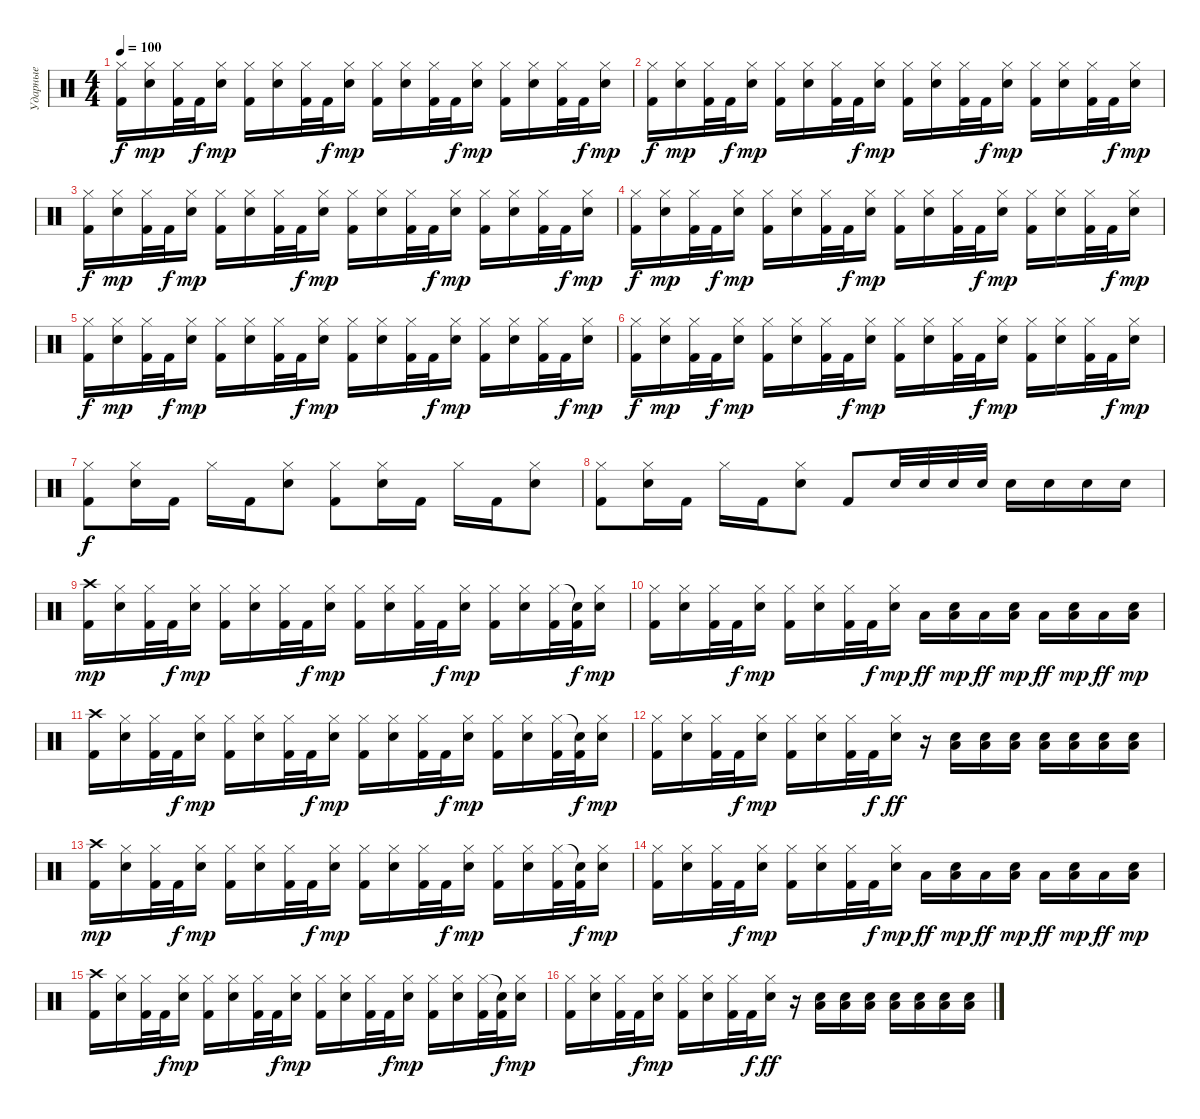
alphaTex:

\track ("Ударные" "Ударные") {instrument percussion}
\staff {score}
\articulation defaults
\ts (4 4)
\tempo 100
\clef neutral
\ks c
("Hi-Hat (closed)" "Kick (hit) 2").16{dy f} ("Hi-Hat (closed)" "Electric Snare (hit)").16{dy mp} ("Hi-Hat (closed)" "Kick (hit) 2").32 "Kick (hit) 2".32{dy f} ("Hi-Hat (closed)" "Electric Snare (hit)").16{dy mp} ("Hi-Hat (closed)" "Kick (hit) 2").16 ("Hi-Hat (closed)" "Electric Snare (hit)").16 ("Hi-Hat (closed)" "Kick (hit) 2").32 "Kick (hit) 2".32{dy f} ("Hi-Hat (closed)" "Electric Snare (hit)").16{dy mp} ("Hi-Hat (closed)" "Kick (hit) 2").16 ("Hi-Hat (closed)" "Electric Snare (hit)").16 ("Hi-Hat (closed)" "Kick (hit) 2").32 "Kick (hit) 2".32{dy f} ("Hi-Hat (closed)" "Electric Snare (hit)").16{dy mp} ("Hi-Hat (closed)" "Kick (hit) 2").16 ("Hi-Hat (closed)" "Electric Snare (hit)").16 ("Hi-Hat (closed)" "Kick (hit) 2").32 "Kick (hit) 2".32{dy f} ("Hi-Hat (closed)" "Electric Snare (hit)").16{dy mp} |
("Hi-Hat (closed)" "Kick (hit) 2").16{dy f} ("Hi-Hat (closed)" "Electric Snare (hit)").16{dy mp} ("Hi-Hat (closed)" "Kick (hit) 2").32 "Kick (hit) 2".32{dy f} ("Hi-Hat (closed)" "Electric Snare (hit)").16{dy mp} ("Hi-Hat (closed)" "Kick (hit) 2").16 ("Hi-Hat (closed)" "Electric Snare (hit)").16 ("Hi-Hat (closed)" "Kick (hit) 2").32 "Kick (hit) 2".32{dy f} ("Hi-Hat (closed)" "Electric Snare (hit)").16{dy mp} ("Hi-Hat (closed)" "Kick (hit) 2").16 ("Hi-Hat (closed)" "Electric Snare (hit)").16 ("Hi-Hat (closed)" "Kick (hit) 2").32 "Kick (hit) 2".32{dy f} ("Hi-Hat (closed)" "Electric Snare (hit)").16{dy mp} ("Hi-Hat (closed)" "Kick (hit) 2").16 ("Hi-Hat (closed)" "Electric Snare (hit)").16 ("Hi-Hat (closed)" "Kick (hit) 2").32 "Kick (hit) 2".32{dy f} ("Hi-Hat (closed)" "Electric Snare (hit)").16{dy mp} |
("Hi-Hat (closed)" "Kick (hit) 2").16{dy f} ("Hi-Hat (closed)" "Electric Snare (hit)").16{dy mp} ("Hi-Hat (closed)" "Kick (hit) 2").32 "Kick (hit) 2".32{dy f} ("Hi-Hat (closed)" "Electric Snare (hit)").16{dy mp} ("Hi-Hat (closed)" "Kick (hit) 2").16 ("Hi-Hat (closed)" "Electric Snare (hit)").16 ("Hi-Hat (closed)" "Kick (hit) 2").32 "Kick (hit) 2".32{dy f} ("Hi-Hat (closed)" "Electric Snare (hit)").16{dy mp} ("Hi-Hat (closed)" "Kick (hit) 2").16 ("Hi-Hat (closed)" "Electric Snare (hit)").16 ("Hi-Hat (closed)" "Kick (hit) 2").32 "Kick (hit) 2".32{dy f} ("Hi-Hat (closed)" "Electric Snare (hit)").16{dy mp} ("Hi-Hat (closed)" "Kick (hit) 2").16 ("Hi-Hat (closed)" "Electric Snare (hit)").16 ("Hi-Hat (closed)" "Kick (hit) 2").32 "Kick (hit) 2".32{dy f} ("Hi-Hat (closed)" "Electric Snare (hit)").16{dy mp} |
("Hi-Hat (closed)" "Kick (hit) 2").16{dy f} ("Hi-Hat (closed)" "Electric Snare (hit)").16{dy mp} ("Hi-Hat (closed)" "Kick (hit) 2").32 "Kick (hit) 2".32{dy f} ("Hi-Hat (closed)" "Electric Snare (hit)").16{dy mp} ("Hi-Hat (closed)" "Kick (hit) 2").16 ("Hi-Hat (closed)" "Electric Snare (hit)").16 ("Hi-Hat (closed)" "Kick (hit) 2").32 "Kick (hit) 2".32{dy f} ("Hi-Hat (closed)" "Electric Snare (hit)").16{dy mp} ("Hi-Hat (closed)" "Kick (hit) 2").16 ("Hi-Hat (closed)" "Electric Snare (hit)").16 ("Hi-Hat (closed)" "Kick (hit) 2").32 "Kick (hit) 2".32{dy f} ("Hi-Hat (closed)" "Electric Snare (hit)").16{dy mp} ("Hi-Hat (closed)" "Kick (hit) 2").16 ("Hi-Hat (closed)" "Electric Snare (hit)").16 ("Hi-Hat (closed)" "Kick (hit) 2").32 "Kick (hit) 2".32{dy f} ("Hi-Hat (closed)" "Electric Snare (hit)").16{dy mp} |
("Hi-Hat (closed)" "Kick (hit) 2").16{dy f} ("Hi-Hat (closed)" "Electric Snare (hit)").16{dy mp} ("Hi-Hat (closed)" "Kick (hit) 2").32 "Kick (hit) 2".32{dy f} ("Hi-Hat (closed)" "Electric Snare (hit)").16{dy mp} ("Hi-Hat (closed)" "Kick (hit) 2").16 ("Hi-Hat (closed)" "Electric Snare (hit)").16 ("Hi-Hat (closed)" "Kick (hit) 2").32 "Kick (hit) 2".32{dy f} ("Hi-Hat (closed)" "Electric Snare (hit)").16{dy mp} ("Hi-Hat (closed)" "Kick (hit) 2").16 ("Hi-Hat (closed)" "Electric Snare (hit)").16 ("Hi-Hat (closed)" "Kick (hit) 2").32 "Kick (hit) 2".32{dy f} ("Hi-Hat (closed)" "Electric Snare (hit)").16{dy mp} ("Hi-Hat (closed)" "Kick (hit) 2").16 ("Hi-Hat (closed)" "Electric Snare (hit)").16 ("Hi-Hat (closed)" "Kick (hit) 2").32 "Kick (hit) 2".32{dy f} ("Hi-Hat (closed)" "Electric Snare (hit)").16{dy mp} |
("Hi-Hat (closed)" "Kick (hit) 2").16{dy f} ("Hi-Hat (closed)" "Electric Snare (hit)").16{dy mp} ("Hi-Hat (closed)" "Kick (hit) 2").32 "Kick (hit) 2".32{dy f} ("Hi-Hat (closed)" "Electric Snare (hit)").16{dy mp} ("Hi-Hat (closed)" "Kick (hit) 2").16 ("Hi-Hat (closed)" "Electric Snare (hit)").16 ("Hi-Hat (closed)" "Kick (hit) 2").32 "Kick (hit) 2".32{dy f} ("Hi-Hat (closed)" "Electric Snare (hit)").16{dy mp} ("Hi-Hat (closed)" "Kick (hit) 2").16 ("Hi-Hat (closed)" "Electric Snare (hit)").16 ("Hi-Hat (closed)" "Kick (hit) 2").32 "Kick (hit) 2".32{dy f} ("Hi-Hat (closed)" "Electric Snare (hit)").16{dy mp} ("Hi-Hat (closed)" "Kick (hit) 2").16 ("Hi-Hat (closed)" "Electric Snare (hit)").16 ("Hi-Hat (closed)" "Kick (hit) 2").32 "Kick (hit) 2".32{dy f} ("Hi-Hat (closed)" "Electric Snare (hit)").16{dy mp} |
("Hi-Hat (closed)" "Kick (hit) 2").8{dy f} ("Hi-Hat (closed)" "Electric Snare (hit)").16 "Kick (hit) 2".16 "Hi-Hat (closed)".16 "Kick (hit) 2".16 ("Hi-Hat (closed)" "Electric Snare (hit)").8 ("Hi-Hat (closed)" "Kick (hit) 2").8 ("Hi-Hat (closed)" "Electric Snare (hit)").16 "Kick (hit) 2".16 "Hi-Hat (closed)".16 "Kick (hit) 2".16 ("Hi-Hat (closed)" "Electric Snare (hit)").8 |
("Hi-Hat (closed)" "Kick (hit) 2").8 ("Hi-Hat (closed)" "Electric Snare (hit)").16 "Kick (hit) 2".16 "Hi-Hat (closed)".16 "Kick (hit) 2".16 ("Hi-Hat (closed)" "Electric Snare (hit)").8 "Kick (hit) 2".8 "Electric Snare (hit)".32 "Electric Snare (hit)".32 "Electric Snare (hit)".32 "Electric Snare (hit)".32 "Electric Snare (hit)".16 "Electric Snare (hit)".16 "Electric Snare (hit)".16 "Electric Snare (hit)".16 |
("Crash high (hit)" "Kick (hit) 2").16{dy mp} ("Hi-Hat (closed)" "Electric Snare (hit)").16 ("Hi-Hat (closed)" "Kick (hit) 2").32 "Kick (hit) 2".32{dy f} ("Hi-Hat (closed)" "Electric Snare (hit)").16{dy mp} ("Hi-Hat (closed)" "Kick (hit) 2").16 ("Hi-Hat (closed)" "Electric Snare (hit)").16 ("Hi-Hat (closed)" "Kick (hit) 2").32 "Kick (hit) 2".32{dy f} ("Hi-Hat (closed)" "Electric Snare (hit)").16{dy mp} ("Hi-Hat (closed)" "Kick (hit) 2").16 ("Hi-Hat (closed)" "Electric Snare (hit)").16 ("Hi-Hat (closed)" "Kick (hit) 2").32 "Kick (hit) 2".32{dy f} ("Hi-Hat (closed)" "Electric Snare (hit)").16{dy mp} ("Hi-Hat (closed)" "Kick (hit) 2").16 ("Hi-Hat (closed)" "Electric Snare (hit)").16 ("Hi-Hat (closed)" "Kick (hit) 2").32 ("Snare (hit)"{t} "Kick (hit) 2").32{dy f} ("Hi-Hat (closed)" "Electric Snare (hit)").16{dy mp} |
("Hi-Hat (closed)" "Kick (hit) 2").16 ("Hi-Hat (closed)" "Electric Snare (hit)").16 ("Hi-Hat (closed)" "Kick (hit) 2").32 "Kick (hit) 2".32{dy f} ("Hi-Hat (closed)" "Electric Snare (hit)").16{dy mp} ("Hi-Hat (closed)" "Kick (hit) 2").16 ("Hi-Hat (closed)" "Electric Snare (hit)").16 ("Hi-Hat (closed)" "Kick (hit) 2").32 "Kick (hit) 2".32{dy f} ("Hi-Hat (closed)" "Electric Snare (hit)").16{dy mp} "Low Floor Tom (hit)".16{dy ff} ("Low Floor Tom (hit)" "Electric Snare (hit)").16{dy mp} "Low Floor Tom (hit)".16{dy ff} ("Low Floor Tom (hit)" "Electric Snare (hit)").16{dy mp} "Low Floor Tom (hit)".16{dy ff} ("Low Floor Tom (hit)" "Electric Snare (hit)").16{dy mp} "Low Floor Tom (hit)".16{dy ff} ("Low Floor Tom (hit)" "Electric Snare (hit)").16{dy mp} |
("Crash high (hit)" "Kick (hit) 2").16 ("Hi-Hat (closed)" "Electric Snare (hit)").16 ("Hi-Hat (closed)" "Kick (hit) 2").32 "Kick (hit) 2".32{dy f} ("Hi-Hat (closed)" "Electric Snare (hit)").16{dy mp} ("Hi-Hat (closed)" "Kick (hit) 2").16 ("Hi-Hat (closed)" "Electric Snare (hit)").16 ("Hi-Hat (closed)" "Kick (hit) 2").32 "Kick (hit) 2".32{dy f} ("Hi-Hat (closed)" "Electric Snare (hit)").16{dy mp} ("Hi-Hat (closed)" "Kick (hit) 2").16 ("Hi-Hat (closed)" "Electric Snare (hit)").16 ("Hi-Hat (closed)" "Kick (hit) 2").32 "Kick (hit) 2".32{dy f} ("Hi-Hat (closed)" "Electric Snare (hit)").16{dy mp} ("Hi-Hat (closed)" "Kick (hit) 2").16 ("Hi-Hat (closed)" "Electric Snare (hit)").16 ("Hi-Hat (closed)" "Kick (hit) 2").32 ("Snare (hit)"{t} "Kick (hit) 2").32{dy f} ("Hi-Hat (closed)" "Electric Snare (hit)").16{dy mp} |
("Hi-Hat (closed)" "Kick (hit) 2").16 ("Hi-Hat (closed)" "Electric Snare (hit)").16 ("Hi-Hat (closed)" "Kick (hit) 2").32 "Kick (hit) 2".32{dy f} ("Hi-Hat (closed)" "Electric Snare (hit)").16{dy mp} ("Hi-Hat (closed)" "Kick (hit) 2").16 ("Hi-Hat (closed)" "Electric Snare (hit)").16 ("Hi-Hat (closed)" "Kick (hit) 2").32 "Kick (hit) 2".32{dy f} ("Hi-Hat (closed)" "Electric Snare (hit)").16{dy ff} r.16 ("Low Floor Tom (hit)" "Electric Snare (hit)").16 ("Low Floor Tom (hit)" "Electric Snare (hit)").16 ("Low Floor Tom (hit)" "Electric Snare (hit)").16 ("Low Floor Tom (hit)" "Electric Snare (hit)").16 ("Low Floor Tom (hit)" "Electric Snare (hit)").16 ("Low Floor Tom (hit)" "Electric Snare (hit)").16 ("Low Floor Tom (hit)" "Electric Snare (hit)").16 |
("Crash high (hit)" "Kick (hit) 2").16{dy mp} ("Hi-Hat (closed)" "Electric Snare (hit)").16 ("Hi-Hat (closed)" "Kick (hit) 2").32 "Kick (hit) 2".32{dy f} ("Hi-Hat (closed)" "Electric Snare (hit)").16{dy mp} ("Hi-Hat (closed)" "Kick (hit) 2").16 ("Hi-Hat (closed)" "Electric Snare (hit)").16 ("Hi-Hat (closed)" "Kick (hit) 2").32 "Kick (hit) 2".32{dy f} ("Hi-Hat (closed)" "Electric Snare (hit)").16{dy mp} ("Hi-Hat (closed)" "Kick (hit) 2").16 ("Hi-Hat (closed)" "Electric Snare (hit)").16 ("Hi-Hat (closed)" "Kick (hit) 2").32 "Kick (hit) 2".32{dy f} ("Hi-Hat (closed)" "Electric Snare (hit)").16{dy mp} ("Hi-Hat (closed)" "Kick (hit) 2").16 ("Hi-Hat (closed)" "Electric Snare (hit)").16 ("Hi-Hat (closed)" "Kick (hit) 2").32 ("Snare (hit)"{t} "Kick (hit) 2").32{dy f} ("Hi-Hat (closed)" "Electric Snare (hit)").16{dy mp} |
("Hi-Hat (closed)" "Kick (hit) 2").16 ("Hi-Hat (closed)" "Electric Snare (hit)").16 ("Hi-Hat (closed)" "Kick (hit) 2").32 "Kick (hit) 2".32{dy f} ("Hi-Hat (closed)" "Electric Snare (hit)").16{dy mp} ("Hi-Hat (closed)" "Kick (hit) 2").16 ("Hi-Hat (closed)" "Electric Snare (hit)").16 ("Hi-Hat (closed)" "Kick (hit) 2").32 "Kick (hit) 2".32{dy f} ("Hi-Hat (closed)" "Electric Snare (hit)").16{dy mp} "Low Floor Tom (hit)".16{dy ff} ("Low Floor Tom (hit)" "Electric Snare (hit)").16{dy mp} "Low Floor Tom (hit)".16{dy ff} ("Low Floor Tom (hit)" "Electric Snare (hit)").16{dy mp} "Low Floor Tom (hit)".16{dy ff} ("Low Floor Tom (hit)" "Electric Snare (hit)").16{dy mp} "Low Floor Tom (hit)".16{dy ff} ("Low Floor Tom (hit)" "Electric Snare (hit)").16{dy mp} |
("Crash high (hit)" "Kick (hit) 2").16 ("Hi-Hat (closed)" "Electric Snare (hit)").16 ("Hi-Hat (closed)" "Kick (hit) 2").32 "Kick (hit) 2".32{dy f} ("Hi-Hat (closed)" "Electric Snare (hit)").16{dy mp} ("Hi-Hat (closed)" "Kick (hit) 2").16 ("Hi-Hat (closed)" "Electric Snare (hit)").16 ("Hi-Hat (closed)" "Kick (hit) 2").32 "Kick (hit) 2".32{dy f} ("Hi-Hat (closed)" "Electric Snare (hit)").16{dy mp} ("Hi-Hat (closed)" "Kick (hit) 2").16 ("Hi-Hat (closed)" "Electric Snare (hit)").16 ("Hi-Hat (closed)" "Kick (hit) 2").32 "Kick (hit) 2".32{dy f} ("Hi-Hat (closed)" "Electric Snare (hit)").16{dy mp} ("Hi-Hat (closed)" "Kick (hit) 2").16 ("Hi-Hat (closed)" "Electric Snare (hit)").16 ("Hi-Hat (closed)" "Kick (hit) 2").32 ("Snare (hit)"{t} "Kick (hit) 2").32{dy f} ("Hi-Hat (closed)" "Electric Snare (hit)").16{dy mp} |
("Hi-Hat (closed)" "Kick (hit) 2").16 ("Hi-Hat (closed)" "Electric Snare (hit)").16 ("Hi-Hat (closed)" "Kick (hit) 2").32 "Kick (hit) 2".32{dy f} ("Hi-Hat (closed)" "Electric Snare (hit)").16{dy mp} ("Hi-Hat (closed)" "Kick (hit) 2").16 ("Hi-Hat (closed)" "Electric Snare (hit)").16 ("Hi-Hat (closed)" "Kick (hit) 2").32 "Kick (hit) 2".32{dy f} ("Hi-Hat (closed)" "Electric Snare (hit)").16{dy ff} r.16 ("Low Floor Tom (hit)" "Electric Snare (hit)").16 ("Low Floor Tom (hit)" "Electric Snare (hit)").16 ("Low Floor Tom (hit)" "Electric Snare (hit)").16 ("Low Floor Tom (hit)" "Electric Snare (hit)").16 ("Low Floor Tom (hit)" "Electric Snare (hit)").16 ("Low Floor Tom (hit)" "Electric Snare (hit)").16 ("Low Floor Tom (hit)" "Electric Snare (hit)").16
